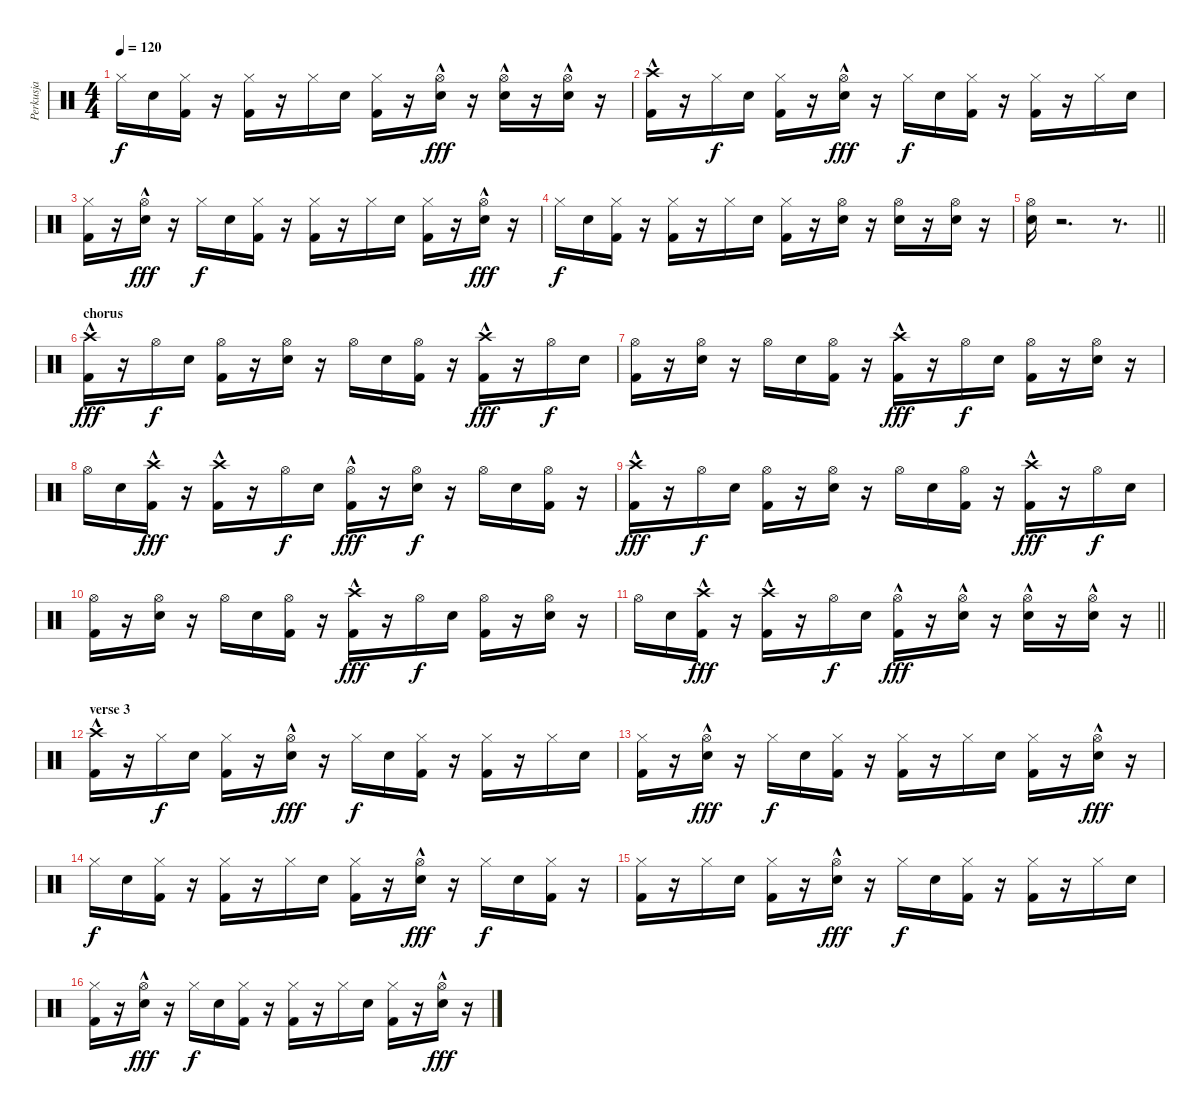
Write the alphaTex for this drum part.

\track ("Perkusja" "Perkusja") {instrument percussion}
\staff {score}
\articulation defaults
\ts (4 4)
\tempo 120
\clef neutral
\ks c "Hi-Hat (closed)".16{dy f} "Electric Snare (hit)".16
("Hi-Hat (closed)" "Kick (hit) 2").16 r.16 ("Hi-Hat (closed)" "Kick (hit) 2").16 r.16 "Hi-Hat (closed)".16 "Electric Snare (hit)".16 ("Hi-Hat (closed)" "Kick (hit) 2").16 r.16 ("Hi-Hat (open)"{hac} "Electric Snare (hit)"{hac}).16{dy fff} r.16 ("Hi-Hat (open)"{hac} "Electric Snare (hit)"{hac}).16 r.16 ("Hi-Hat (open)"{hac} "Electric Snare (hit)"{hac}).16 r.16 |
("Crash high (hit)"{hac} "Kick (hit) 2").16 r.16 "Hi-Hat (closed)".16{dy f} "Electric Snare (hit)".16 ("Hi-Hat (closed)" "Kick (hit) 2").16 r.16 ("Hi-Hat (open)"{hac} "Electric Snare (hit)"{hac}).16{dy fff} r.16 "Hi-Hat (closed)".16{dy f} "Electric Snare (hit)".16 ("Hi-Hat (closed)" "Kick (hit) 2").16 r.16 ("Hi-Hat (closed)" "Kick (hit) 2").16 r.16 "Hi-Hat (closed)".16 "Electric Snare (hit)".16 |
("Hi-Hat (closed)" "Kick (hit) 2").16 r.16 ("Hi-Hat (open)"{hac} "Electric Snare (hit)"{hac}).16{dy fff} r.16 "Hi-Hat (closed)".16{dy f} "Electric Snare (hit)".16 ("Hi-Hat (closed)" "Kick (hit) 2").16 r.16 ("Hi-Hat (closed)" "Kick (hit) 2").16 r.16 "Hi-Hat (closed)".16 "Electric Snare (hit)".16 ("Hi-Hat (closed)" "Kick (hit) 2").16 r.16 ("Hi-Hat (open)"{hac} "Electric Snare (hit)"{hac}).16{dy fff} r.16 |
"Hi-Hat (closed)".16{dy f} "Electric Snare (hit)".16 ("Hi-Hat (closed)" "Kick (hit) 2").16 r.16 ("Hi-Hat (closed)" "Kick (hit) 2").16 r.16 "Hi-Hat (closed)".16 "Electric Snare (hit)".16 ("Hi-Hat (closed)" "Kick (hit) 2").16 r.16 ("Hi-Hat (open)" "Electric Snare (hit)").16 r.16 ("Hi-Hat (open)" "Electric Snare (hit)").16 r.16 ("Hi-Hat (open)" "Electric Snare (hit)").16 r.16 |
\barLineRight lightlight
("Hi-Hat (open)" "Electric Snare (hit)").16 r.2{d} r.8{d} |
\section ("" "chorus")
("Crash high (hit)"{hac} "Kick (hit) 2").16{dy fff} r.16 "Hi-Hat (open)".16{dy f} "Electric Snare (hit)".16 ("Hi-Hat (open)" "Kick (hit) 2").16 r.16 ("Hi-Hat (open)" "Electric Snare (hit)").16 r.16 "Hi-Hat (open)".16 "Electric Snare (hit)".16 ("Hi-Hat (open)" "Kick (hit) 2").16 r.16 ("Crash high (hit)"{hac} "Kick (hit) 2").16{dy fff} r.16 "Hi-Hat (open)".16{dy f} "Electric Snare (hit)".16 |
("Hi-Hat (open)" "Kick (hit) 2").16 r.16 ("Hi-Hat (open)" "Electric Snare (hit)").16 r.16 "Hi-Hat (open)".16 "Electric Snare (hit)".16 ("Hi-Hat (open)" "Kick (hit) 2").16 r.16 ("Crash high (hit)"{hac} "Kick (hit) 2").16{dy fff} r.16 "Hi-Hat (open)".16{dy f} "Electric Snare (hit)".16 ("Hi-Hat (open)" "Kick (hit) 2").16 r.16 ("Hi-Hat (open)" "Electric Snare (hit)").16 r.16 |
"Hi-Hat (open)".16 "Electric Snare (hit)".16 ("Crash high (hit)"{hac} "Kick (hit) 2").16{dy fff} r.16 ("Crash high (hit)"{hac} "Kick (hit) 2").16 r.16 "Hi-Hat (open)".16{dy f} "Electric Snare (hit)".16 ("Hi-Hat (open)"{hac} "Kick (hit) 2").16{dy fff} r.16 ("Hi-Hat (open)" "Electric Snare (hit)").16{dy f} r.16 "Hi-Hat (open)".16 "Electric Snare (hit)".16 ("Hi-Hat (open)" "Kick (hit) 2").16 r.16 |
("Crash high (hit)"{hac} "Kick (hit) 2").16{dy fff} r.16 "Hi-Hat (open)".16{dy f} "Electric Snare (hit)".16 ("Hi-Hat (open)" "Kick (hit) 2").16 r.16 ("Hi-Hat (open)" "Electric Snare (hit)").16 r.16 "Hi-Hat (open)".16 "Electric Snare (hit)".16 ("Hi-Hat (open)" "Kick (hit) 2").16 r.16 ("Crash high (hit)"{hac} "Kick (hit) 2").16{dy fff} r.16 "Hi-Hat (open)".16{dy f} "Electric Snare (hit)".16 |
("Hi-Hat (open)" "Kick (hit) 2").16 r.16 ("Hi-Hat (open)" "Electric Snare (hit)").16 r.16 "Hi-Hat (open)".16 "Electric Snare (hit)".16 ("Hi-Hat (open)" "Kick (hit) 2").16 r.16 ("Crash high (hit)"{hac} "Kick (hit) 2").16{dy fff} r.16 "Hi-Hat (open)".16{dy f} "Electric Snare (hit)".16 ("Hi-Hat (open)" "Kick (hit) 2").16 r.16 ("Hi-Hat (open)" "Electric Snare (hit)").16 r.16 |
\barLineRight lightlight "Hi-Hat (open)".16 "Electric Snare (hit)".16
("Crash high (hit)"{hac} "Kick (hit) 2").16{dy fff} r.16 ("Crash high (hit)"{hac} "Kick (hit) 2").16 r.16 "Hi-Hat (open)".16{dy f} "Electric Snare (hit)".16 ("Hi-Hat (open)"{hac} "Kick (hit) 2").16{dy fff} r.16 ("Hi-Hat (open)"{hac} "Electric Snare (hit)"{hac}).16 r.16 ("Hi-Hat (open)"{hac} "Electric Snare (hit)"{hac}).16 r.16 ("Hi-Hat (open)"{hac} "Electric Snare (hit)"{hac}).16 r.16 |
\section ("" "verse 3")
("Crash high (hit)"{hac} "Kick (hit) 2").16 r.16 "Hi-Hat (closed)".16{dy f} "Electric Snare (hit)".16 ("Hi-Hat (closed)" "Kick (hit) 2").16 r.16 ("Hi-Hat (open)"{hac} "Electric Snare (hit)"{hac}).16{dy fff} r.16 "Hi-Hat (closed)".16{dy f} "Electric Snare (hit)".16 ("Hi-Hat (closed)" "Kick (hit) 2").16 r.16 ("Hi-Hat (closed)" "Kick (hit) 2").16 r.16 "Hi-Hat (closed)".16 "Electric Snare (hit)".16 |
("Hi-Hat (closed)" "Kick (hit) 2").16 r.16 ("Hi-Hat (open)"{hac} "Electric Snare (hit)"{hac}).16{dy fff} r.16 "Hi-Hat (closed)".16{dy f} "Electric Snare (hit)".16 ("Hi-Hat (closed)" "Kick (hit) 2").16 r.16 ("Hi-Hat (closed)" "Kick (hit) 2").16 r.16 "Hi-Hat (closed)".16 "Electric Snare (hit)".16 ("Hi-Hat (closed)" "Kick (hit) 2").16 r.16 ("Hi-Hat (open)"{hac} "Electric Snare (hit)"{hac}).16{dy fff} r.16 |
"Hi-Hat (closed)".16{dy f} "Electric Snare (hit)".16 ("Hi-Hat (closed)" "Kick (hit) 2").16 r.16 ("Hi-Hat (closed)" "Kick (hit) 2").16 r.16 "Hi-Hat (closed)".16 "Electric Snare (hit)".16 ("Hi-Hat (closed)" "Kick (hit) 2").16 r.16 ("Hi-Hat (open)"{hac} "Electric Snare (hit)"{hac}).16{dy fff} r.16 "Hi-Hat (closed)".16{dy f} "Electric Snare (hit)".16 ("Hi-Hat (closed)" "Kick (hit) 2").16 r.16 |
("Hi-Hat (closed)" "Kick (hit) 2").16 r.16 "Hi-Hat (closed)".16 "Electric Snare (hit)".16 ("Hi-Hat (closed)" "Kick (hit) 2").16 r.16 ("Hi-Hat (open)"{hac} "Electric Snare (hit)"{hac}).16{dy fff} r.16 "Hi-Hat (closed)".16{dy f} "Electric Snare (hit)".16 ("Hi-Hat (closed)" "Kick (hit) 2").16 r.16 ("Hi-Hat (closed)" "Kick (hit) 2").16 r.16 "Hi-Hat (closed)".16 "Electric Snare (hit)".16 |
("Hi-Hat (closed)" "Kick (hit) 2").16 r.16 ("Hi-Hat (open)"{hac} "Electric Snare (hit)"{hac}).16{dy fff} r.16 "Hi-Hat (closed)".16{dy f} "Electric Snare (hit)".16 ("Hi-Hat (closed)" "Kick (hit) 2").16 r.16 ("Hi-Hat (closed)" "Kick (hit) 2").16 r.16 "Hi-Hat (closed)".16 "Electric Snare (hit)".16 ("Hi-Hat (closed)" "Kick (hit) 2").16 r.16 ("Hi-Hat (open)"{hac} "Electric Snare (hit)"{hac}).16{dy fff} r.16
